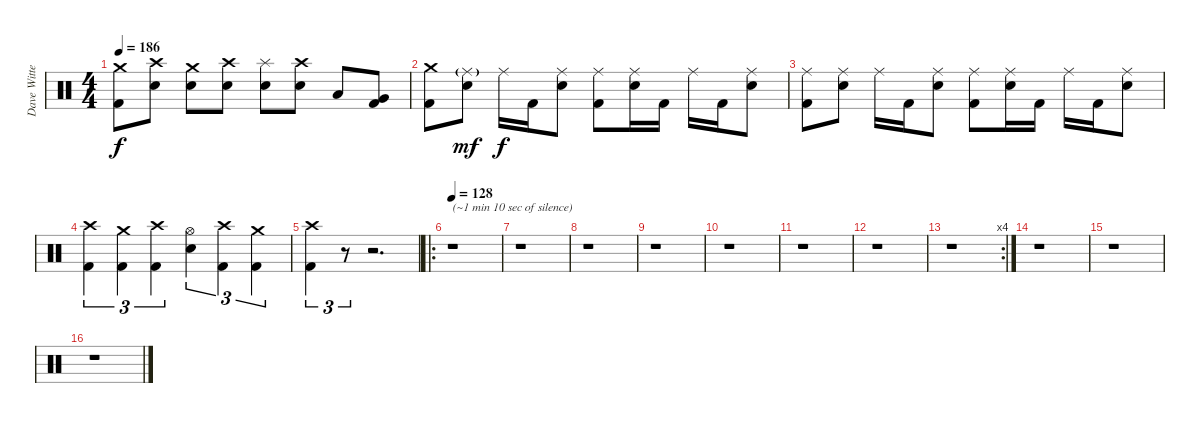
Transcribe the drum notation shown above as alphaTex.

\track ("Dave Witte" "Dave Witte") {instrument percussion}
\staff {score}
\articulation defaults
\ts (4 4)
\tempo 186
\clef neutral
\ks c
("Crash medium (hit)" "Kick (hit) 2").8{dy f} ("Crash high (hit)" "Electric Snare (hit)").8 ("Crash medium (hit)" "Electric Snare (hit)").8 ("Crash high (hit)" "Electric Snare (hit)").8 ("Splash (hit)" "Electric Snare (hit)").8 ("Crash high (hit)" "Electric Snare (hit)").8 "Low Tom (hit)".8 ("Very Low Tom (hit)" "Kick (hit) 2").8 |
("Crash medium (hit)" "Kick (hit) 2").8 ("Ride (middle)"{g} "Electric Snare (hit)").8{dy mf} "Ride (middle)".16{dy f} "Kick (hit) 2".16 ("Ride (middle)" "Electric Snare (hit)").8 ("Ride (middle)" "Kick (hit) 2").8 ("Ride (middle)" "Electric Snare (hit)").16 "Kick (hit) 2".16 "Ride (middle)".16 "Kick (hit) 2".16 ("Ride (middle)" "Electric Snare (hit)").8 |
("Ride (middle)" "Kick (hit) 2").8 ("Ride (middle)" "Electric Snare (hit)").8 "Ride (middle)".16 "Kick (hit) 2".16 ("Ride (middle)" "Electric Snare (hit)").8 ("Ride (middle)" "Kick (hit) 2").8 ("Ride (middle)" "Electric Snare (hit)").16 "Kick (hit) 2".16 "Ride (middle)".16 "Kick (hit) 2".16 ("Ride (middle)" "Electric Snare (hit)").8 |
("Crash high (hit)" "Kick (hit) 2").4{tu (3 2)} ("Crash medium (hit)" "Kick (hit) 2").4{tu (3 2)} ("Crash high (hit)" "Kick (hit) 2").4{tu (3 2)} ("Hi-Hat (open)" "Electric Snare (hit)").4{tu (3 2)} ("Crash high (hit)" "Kick (hit) 2").4{tu (3 2)} ("Crash medium (hit)" "Kick (hit) 2").4{tu (3 2)} |
("Crash high (hit)" "Kick (hit) 2").4{tu (3 2)} r.8{tu (3 2) volume 0} r.2{d} |
\ro
\tempo 128
r.1{txt "(~1 min 10 sec of silence)"} |
r.1 |
r.1 |
r.1 |
r.1 |
r.1 |
r.1 |
\rc 4
r.1 |
r.1 |
r.1 |
r.1
